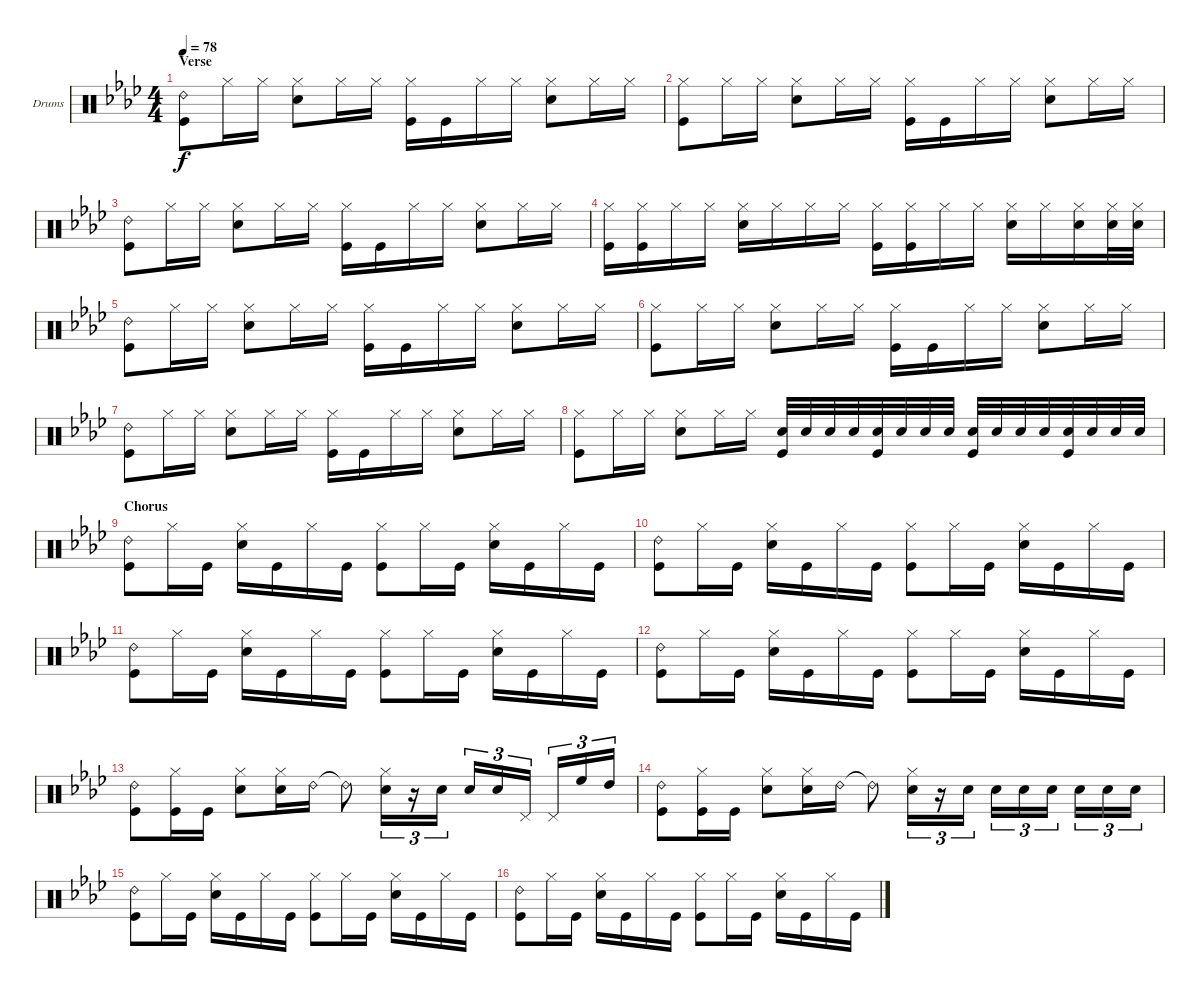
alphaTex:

\defaultSystemsLayout 4
\bracketExtendMode groupsimilarinstruments
\firstSystemTrackNameOrientation horizontal
\otherSystemsTrackNameOrientation horizontal
\track ("Drumkit" "Drums") {instrument percussion}
\staff {score}
\articulation defaults
\ts (4 4)
\section ("" "Verse")
\tempo 78
\clef neutral
\ks ab
("Ride (bell) 2" "Kick (hit)").8{dy f} "Hi-Hat (closed)".16 "Hi-Hat (closed)".16 ("Hi-Hat (closed)" "Snare (hit) 2").8 "Hi-Hat (closed)".16 "Hi-Hat (closed)".16 ("Hi-Hat (closed)" "Kick (hit)").16 "Kick (hit)".16 "Hi-Hat (closed)".16 "Hi-Hat (closed)".16 ("Hi-Hat (closed)" "Snare (hit) 2").8 "Hi-Hat (closed)".16 "Hi-Hat (closed)".16 |
("Hi-Hat (closed)" "Kick (hit)").8 "Hi-Hat (closed)".16 "Hi-Hat (closed)".16 ("Hi-Hat (closed)" "Snare (hit) 2").8 "Hi-Hat (closed)".16 "Hi-Hat (closed)".16 ("Hi-Hat (closed)" "Kick (hit)").16 "Kick (hit)".16 "Hi-Hat (closed)".16 "Hi-Hat (closed)".16 ("Hi-Hat (closed)" "Snare (hit) 2").8 "Hi-Hat (closed)".16 "Hi-Hat (closed)".16 |
("Ride (bell) 2" "Kick (hit)").8 "Hi-Hat (closed)".16 "Hi-Hat (closed)".16 ("Hi-Hat (closed)" "Snare (hit) 2").8 "Hi-Hat (closed)".16 "Hi-Hat (closed)".16 ("Hi-Hat (closed)" "Kick (hit)").16 "Kick (hit)".16 "Hi-Hat (closed)".16 "Hi-Hat (closed)".16 ("Hi-Hat (closed)" "Snare (hit) 2").8 "Hi-Hat (closed)".16 "Hi-Hat (closed)".16 |
("Hi-Hat (closed)" "Kick (hit)").16 ("Hi-Hat (closed)" "Kick (hit)").16 "Hi-Hat (closed)".16 "Hi-Hat (closed)".16 ("Hi-Hat (closed)" "Snare (hit) 2").16 "Hi-Hat (closed)".16 "Hi-Hat (closed)".16 "Hi-Hat (closed)".16 ("Hi-Hat (closed)" "Kick (hit)").16 ("Hi-Hat (closed)" "Kick (hit)").16 "Hi-Hat (closed)".16 "Hi-Hat (closed)".16 ("Hi-Hat (closed)" "Snare (hit) 2").16 "Hi-Hat (closed)".16 ("Hi-Hat (closed)" "Snare (hit) 2").16 ("Hi-Hat (closed)" "Snare (hit) 2").32 ("Hi-Hat (closed)" "Snare (hit) 2").32 |
("Ride (bell) 2" "Kick (hit)").8 "Hi-Hat (closed)".16 "Hi-Hat (closed)".16 ("Hi-Hat (closed)" "Snare (hit) 2").8 "Hi-Hat (closed)".16 "Hi-Hat (closed)".16 ("Hi-Hat (closed)" "Kick (hit)").16 "Kick (hit)".16 "Hi-Hat (closed)".16 "Hi-Hat (closed)".16 ("Hi-Hat (closed)" "Snare (hit) 2").8 "Hi-Hat (closed)".16 "Hi-Hat (closed)".16 |
("Hi-Hat (closed)" "Kick (hit)").8 "Hi-Hat (closed)".16 "Hi-Hat (closed)".16 ("Hi-Hat (closed)" "Snare (hit) 2").8 "Hi-Hat (closed)".16 "Hi-Hat (closed)".16 ("Hi-Hat (closed)" "Kick (hit)").16 "Kick (hit)".16 "Hi-Hat (closed)".16 "Hi-Hat (closed)".16 ("Hi-Hat (closed)" "Snare (hit) 2").8 "Hi-Hat (closed)".16 "Hi-Hat (closed)".16 |
("Ride (bell) 2" "Kick (hit)").8 "Hi-Hat (closed)".16 "Hi-Hat (closed)".16 ("Hi-Hat (closed)" "Snare (hit) 2").8 "Hi-Hat (closed)".16 "Hi-Hat (closed)".16 ("Hi-Hat (closed)" "Kick (hit)").16 "Kick (hit)".16 "Hi-Hat (closed)".16 "Hi-Hat (closed)".16 ("Hi-Hat (closed)" "Snare (hit) 2").8 "Hi-Hat (closed)".16 "Hi-Hat (closed)".16 |
("Hi-Hat (closed)" "Kick (hit)").8 "Hi-Hat (closed)".16 "Hi-Hat (closed)".16 ("Hi-Hat (closed)" "Snare (hit) 2").8 "Hi-Hat (closed)".16 "Hi-Hat (closed)".16 ("Snare (hit) 2" "Kick (hit)").32 "Snare (hit) 2".32 "Snare (hit) 2".32 "Snare (hit) 2".32 ("Snare (hit) 2" "Kick (hit)").32 "Snare (hit) 2".32 "Snare (hit) 2".32 "Snare (hit) 2".32 ("Snare (hit) 2" "Kick (hit)").32 "Snare (hit) 2".32 "Snare (hit) 2".32 "Snare (hit) 2".32 ("Snare (hit) 2" "Kick (hit)").32 "Snare (hit) 2".32 "Snare (hit) 2".32 "Snare (hit) 2".32 |
\section ("" "Chorus")
("Ride (bell) 2" "Kick (hit)").8 "Hi-Hat (closed)".16 "Kick (hit)".16 ("Hi-Hat (closed)" "Snare (hit) 2").16 "Kick (hit)".16 "Hi-Hat (closed)".16 "Kick (hit)".16 ("Hi-Hat (closed)" "Kick (hit)").8 "Hi-Hat (closed)".16 "Kick (hit)".16 ("Hi-Hat (closed)" "Snare (hit) 2").16 "Kick (hit)".16 "Hi-Hat (closed)".16 "Kick (hit)".16 |
("Ride (bell) 2" "Kick (hit)").8 "Hi-Hat (closed)".16 "Kick (hit)".16 ("Hi-Hat (closed)" "Snare (hit) 2").16 "Kick (hit)".16 "Hi-Hat (closed)".16 "Kick (hit)".16 ("Hi-Hat (closed)" "Kick (hit)").8 "Hi-Hat (closed)".16 "Kick (hit)".16 ("Hi-Hat (closed)" "Snare (hit) 2").16 "Kick (hit)".16 "Hi-Hat (closed)".16 "Kick (hit)".16 |
("Ride (bell) 2" "Kick (hit)").8 "Hi-Hat (closed)".16 "Kick (hit)".16 ("Hi-Hat (closed)" "Snare (hit) 2").16 "Kick (hit)".16 "Hi-Hat (closed)".16 "Kick (hit)".16 ("Hi-Hat (closed)" "Kick (hit)").8 "Hi-Hat (closed)".16 "Kick (hit)".16 ("Hi-Hat (closed)" "Snare (hit) 2").16 "Kick (hit)".16 "Hi-Hat (closed)".16 "Kick (hit)".16 |
("Ride (bell) 2" "Kick (hit)").8 "Hi-Hat (closed)".16 "Kick (hit)".16 ("Hi-Hat (closed)" "Snare (hit) 2").16 "Kick (hit)".16 "Hi-Hat (closed)".16 "Kick (hit)".16 ("Hi-Hat (closed)" "Kick (hit)").8 "Hi-Hat (closed)".16 "Kick (hit)".16 ("Hi-Hat (closed)" "Snare (hit) 2").16 "Kick (hit)".16 "Hi-Hat (closed)".16 "Kick (hit)".16 |
("Ride (bell) 2" "Kick (hit)").8 ("Hi-Hat (closed)" "Kick (hit)").16 "Kick (hit)".16 ("Hi-Hat (closed)" "Snare (hit) 2").8 ("Hi-Hat (closed)" "Snare (hit) 2").16 "Ride (bell) 2".16 "Ride (bell) 2"{t}.8 ("Hi-Hat (closed)" "Snare (hit) 2").16{tu (3 2)} r.16{tu (3 2)} "Snare (hit) 2".16{tu (3 2)} "Snare (hit) 2".16{tu (3 2)} "Snare (hit) 2".16{tu (3 2)} "Pedal Hi-Hat (hit)".16{tu (3 2)} "Pedal Hi-Hat (hit)".16{tu (3 2)} "High Floor Tom (hit)".16{tu (3 2)} "High Tom (hit)".16{tu (3 2)} |
("Ride (bell) 2" "Kick (hit)").8 ("Hi-Hat (closed)" "Kick (hit)").16 "Kick (hit)".16 ("Hi-Hat (closed)" "Snare (hit) 2").8 ("Hi-Hat (closed)" "Snare (hit) 2").16 "Ride (bell) 2".16 "Ride (bell) 2"{t}.8 ("Hi-Hat (closed)" "Snare (hit) 2").16{tu (3 2)} r.16{tu (3 2)} "Snare (hit) 2".16{tu (3 2)} "Snare (hit) 2".16{tu (3 2)} "Snare (hit) 2".16{tu (3 2)} "Snare (hit) 2".16{tu (3 2)} "Snare (hit) 2".16{tu (3 2)} "Snare (hit) 2".16{tu (3 2)} "Snare (hit) 2".16{tu (3 2)} |
("Ride (bell) 2" "Kick (hit)").8 "Hi-Hat (closed)".16 "Kick (hit)".16 ("Hi-Hat (closed)" "Snare (hit) 2").16 "Kick (hit)".16 "Hi-Hat (closed)".16 "Kick (hit)".16 ("Hi-Hat (closed)" "Kick (hit)").8 "Hi-Hat (closed)".16 "Kick (hit)".16 ("Hi-Hat (closed)" "Snare (hit) 2").16 "Kick (hit)".16 "Hi-Hat (closed)".16 "Kick (hit)".16 |
("Ride (bell) 2" "Kick (hit)").8 "Hi-Hat (closed)".16 "Kick (hit)".16 ("Hi-Hat (closed)" "Snare (hit) 2").16 "Kick (hit)".16 "Hi-Hat (closed)".16 "Kick (hit)".16 ("Hi-Hat (closed)" "Kick (hit)").8 "Hi-Hat (closed)".16 "Kick (hit)".16 ("Hi-Hat (closed)" "Snare (hit) 2").16 "Kick (hit)".16 "Hi-Hat (closed)".16 "Kick (hit)".16
